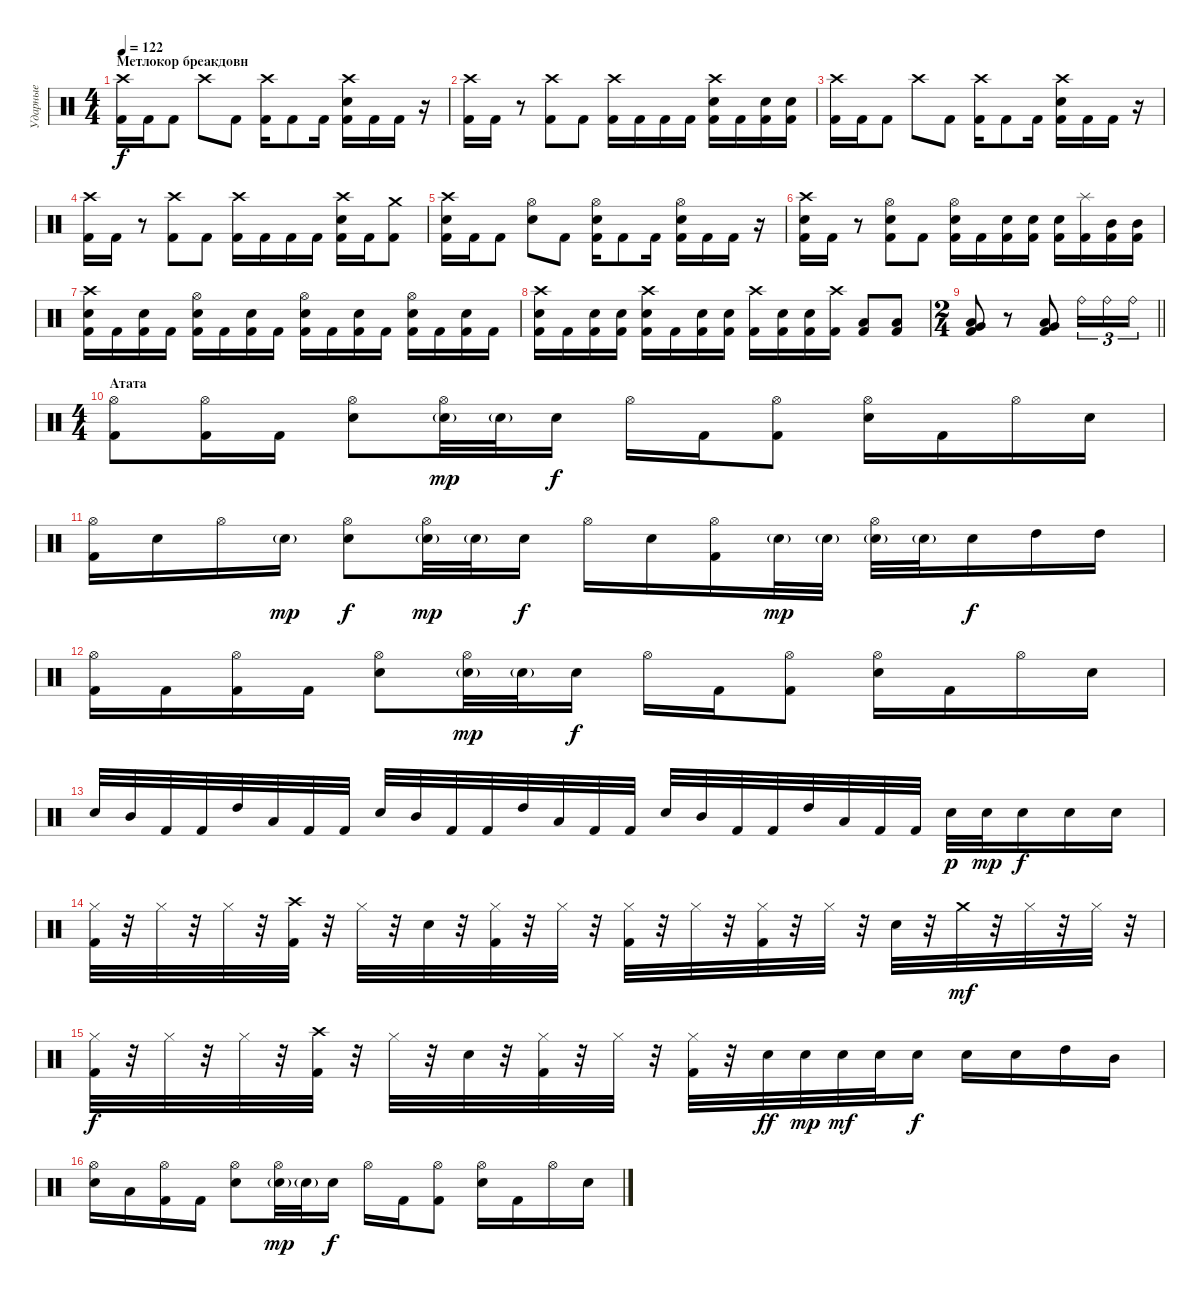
\track ("Ударные" "Ударные") {instrument percussion}
\staff {score}
\articulation defaults
\ts (4 4)
\section ("" "Метлокор бреакдовн")
\tempo 122
\clef neutral
\ks c
("Crash high (hit)" "Kick (hit) 2").16{dy f} "Kick (hit) 2".16 "Kick (hit) 2".8 "Crash high (hit)".8 "Kick (hit) 2".8 ("Crash high (hit)" "Kick (hit) 2").16 "Kick (hit) 2".8 "Kick (hit) 2".16 ("Crash high (hit)" "Electric Snare (hit)" "Kick (hit) 2").16 "Kick (hit) 2".16 "Kick (hit) 2".16 r.16 |
("Crash high (hit)" "Kick (hit) 2").16 "Kick (hit) 2".16 r.8 ("Crash high (hit)" "Kick (hit) 2").8 "Kick (hit) 2".8 ("Crash high (hit)" "Kick (hit) 2").16 "Kick (hit) 2".16 "Kick (hit) 2".16 "Kick (hit) 2".16 ("Crash high (hit)" "Electric Snare (hit)" "Kick (hit) 2").16 "Kick (hit) 2".16 ("Electric Snare (hit)" "Kick (hit) 2").16 ("Electric Snare (hit)" "Kick (hit) 2").16 |
("Crash high (hit)" "Kick (hit) 2").16 "Kick (hit) 2".16 "Kick (hit) 2".8 "Crash high (hit)".8 "Kick (hit) 2".8 ("Crash high (hit)" "Kick (hit) 2").16 "Kick (hit) 2".8 "Kick (hit) 2".16 ("Crash high (hit)" "Electric Snare (hit)" "Kick (hit) 2").16 "Kick (hit) 2".16 "Kick (hit) 2".16 r.16 |
("Crash high (hit)" "Kick (hit) 2").16 "Kick (hit) 2".16 r.8 ("Crash high (hit)" "Kick (hit) 2").8 "Kick (hit) 2".8 ("Crash high (hit)" "Kick (hit) 2").16 "Kick (hit) 2".16 "Kick (hit) 2".16 "Kick (hit) 2".16 ("Crash high (hit)" "Electric Snare (hit)" "Kick (hit) 2").16 "Kick (hit) 2".16 ("Crash medium (hit)" "Kick (hit) 2").8 |
("Crash high (hit)" "Electric Snare (hit)" "Kick (hit) 2").16 "Kick (hit) 2".16 "Kick (hit) 2".8 ("Hi-Hat (open)" "Electric Snare (hit)").8 "Kick (hit) 2".8 ("Hi-Hat (open)" "Electric Snare (hit)" "Kick (hit) 2").16 "Kick (hit) 2".8 "Kick (hit) 2".16 ("Hi-Hat (open)" "Electric Snare (hit)" "Kick (hit) 2").16 "Kick (hit) 2".16 "Kick (hit) 2".16 r.16 |
("Crash high (hit)" "Electric Snare (hit)" "Kick (hit) 2").16 "Kick (hit) 2".16 r.8 ("Hi-Hat (open)" "Electric Snare (hit)" "Kick (hit) 2").8 "Kick (hit) 2".8 ("Hi-Hat (open)" "Electric Snare (hit)" "Kick (hit) 2").16 "Kick (hit) 2".16 ("Electric Snare (hit)" "Kick (hit) 2").16 ("Electric Snare (hit)" "Kick (hit) 2").16 ("Electric Snare (hit)" "Kick (hit) 2").16 ("Splash (hit)" "Kick (hit) 2").16 ("Mid Tom (hit)" "Kick (hit) 2").16 ("Mid Tom (hit)" "Kick (hit) 2").16 |
("Crash high (hit)" "Electric Snare (hit)" "Kick (hit) 2").16 "Kick (hit) 2".16 ("Electric Snare (hit)" "Kick (hit) 2").16 "Kick (hit) 2".16 ("Hi-Hat (open)" "Electric Snare (hit)" "Kick (hit) 2").16 "Kick (hit) 2".16 ("Electric Snare (hit)" "Kick (hit) 2").16 "Kick (hit) 2".16 ("Hi-Hat (open)" "Electric Snare (hit)" "Kick (hit) 2").16 "Kick (hit) 2".16 ("Electric Snare (hit)" "Kick (hit) 2").16 "Kick (hit) 2".16 ("Hi-Hat (open)" "Electric Snare (hit)" "Kick (hit) 2").16 "Kick (hit) 2".16 ("Electric Snare (hit)" "Kick (hit) 2").16 "Kick (hit) 2".16 |
("Crash high (hit)" "Electric Snare (hit)" "Kick (hit) 2").16 "Kick (hit) 2".16 ("Electric Snare (hit)" "Kick (hit) 2").16 ("Electric Snare (hit)" "Kick (hit) 2").16 ("Crash high (hit)" "Electric Snare (hit)" "Kick (hit) 2").16 "Kick (hit) 2".16 ("Electric Snare (hit)" "Kick (hit) 2").16 ("Electric Snare (hit)" "Kick (hit) 2").16 ("Crash high (hit)" "Kick (hit) 2").16 ("Electric Snare (hit)" "Kick (hit) 2").16 ("Electric Snare (hit)" "Kick (hit) 2").16 ("Crash high (hit)" "Kick (hit) 2").16 ("Low Tom (hit)" "Kick (hit) 2").8 ("Low Tom (hit)" "Kick (hit) 2").8 |
\ts (2 4)
\barLineRight lightlight
("Low Tom (hit)" "Very Low Tom (hit)" "Kick (hit) 2").8 r.8 ("Low Tom (hit)" "Very Low Tom (hit)" "Kick (hit) 2").8 "Ride (bell)".16{tu (3 2)} "Ride (bell)".16{tu (3 2)} "Ride (bell)".16{tu (3 2)} |
\ts (4 4)
\section ("" "Атата")
("Hi-Hat (open)" "Kick (hit) 2").8 ("Hi-Hat (open)" "Kick (hit) 2").16 "Kick (hit) 2".16 ("Hi-Hat (open)" "Electric Snare (hit)").8 ("Hi-Hat (open)" "Electric Snare (hit)"{g}).32{dy mp} "Electric Snare (hit)"{g}.32 "Electric Snare (hit)".16{dy f} "Hi-Hat (open)".16 "Kick (hit) 2".16 ("Hi-Hat (open)" "Kick (hit) 2").8 ("Hi-Hat (open)" "Electric Snare (hit)").16 "Kick (hit) 2".16 "Hi-Hat (open)".16 "Electric Snare (hit)".16 |
("Hi-Hat (open)" "Kick (hit) 2").16 "Electric Snare (hit)".16 "Hi-Hat (open)".16 "Electric Snare (hit)"{g}.16{dy mp} ("Hi-Hat (open)" "Electric Snare (hit)").8{dy f} ("Hi-Hat (open)" "Electric Snare (hit)"{g}).32{dy mp} "Electric Snare (hit)"{g}.32 "Electric Snare (hit)".16{dy f} "Hi-Hat (open)".16 "Electric Snare (hit)".16 ("Hi-Hat (open)" "Kick (hit) 2").16 "Electric Snare (hit)"{g}.32{dy mp} "Electric Snare (hit)"{g}.32 ("Hi-Hat (open)" "Electric Snare (hit)"{g}).32 "Electric Snare (hit)"{g}.32 "Electric Snare (hit)".16{dy f} "High Tom (hit)".16 "High Tom (hit)".16 |
("Hi-Hat (open)" "Kick (hit) 2").16 "Kick (hit) 2".16 ("Hi-Hat (open)" "Kick (hit) 2").16 "Kick (hit) 2".16 ("Hi-Hat (open)" "Electric Snare (hit)").8 ("Hi-Hat (open)" "Electric Snare (hit)"{g}).32{dy mp} "Electric Snare (hit)"{g}.32 "Electric Snare (hit)".16{dy f} "Hi-Hat (open)".16 "Kick (hit) 2".16 ("Hi-Hat (open)" "Kick (hit) 2").8 ("Hi-Hat (open)" "Electric Snare (hit)").16 "Kick (hit) 2".16 "Hi-Hat (open)".16 "Electric Snare (hit)".16 |
"Electric Snare (hit)".32 "Mid Tom (hit)".32 "Kick (hit) 2".32 "Kick (hit) 2".32 "High Tom (hit)".32 "Low Tom (hit)".32 "Kick (hit) 2".32 "Kick (hit) 2".32 "Electric Snare (hit)".32 "Mid Tom (hit)".32 "Kick (hit) 2".32 "Kick (hit) 2".32 "High Tom (hit)".32 "Low Tom (hit)".32 "Kick (hit) 2".32 "Kick (hit) 2".32 "Electric Snare (hit)".32 "Mid Tom (hit)".32 "Kick (hit) 2".32 "Kick (hit) 2".32 "High Tom (hit)".32 "Low Tom (hit)".32 "Kick (hit) 2".32 "Kick (hit) 2".32 "Electric Snare (hit)".32{dy p} "Electric Snare (hit)".32{dy mp} "Electric Snare (hit)".16{dy f} "Electric Snare (hit)".16 "Electric Snare (hit)".16 |
("Hi-Hat (closed)" "Kick (hit) 2").32 r.32 "Hi-Hat (closed)".32 r.32 "Hi-Hat (closed)".32 r.32 ("Crash high (hit)" "Kick (hit) 2").32 r.32 "Hi-Hat (closed)".32 r.32 "Electric Snare (hit)".32 r.32 ("Hi-Hat (closed)" "Kick (hit) 2").32 r.32 "Hi-Hat (closed)".32 r.32 ("Hi-Hat (closed)" "Kick (hit) 2").32 r.32 "Hi-Hat (closed)".32 r.32 ("Hi-Hat (closed)" "Kick (hit) 2").32 r.32 "Hi-Hat (closed)".32 r.32 "Electric Snare (hit)".32 r.32 "Crash medium (hit)".32{dy mf} r.32 "Hi-Hat (closed)".32 r.32 "Hi-Hat (closed)".32 r.32 |
("Hi-Hat (closed)" "Kick (hit) 2").32{dy f} r.32 "Hi-Hat (closed)".32 r.32 "Hi-Hat (closed)".32 r.32 ("Crash high (hit)" "Kick (hit) 2").32 r.32 "Hi-Hat (closed)".32 r.32 "Electric Snare (hit)".32 r.32 ("Hi-Hat (closed)" "Kick (hit) 2").32 r.32 "Hi-Hat (closed)".32 r.32 ("Hi-Hat (closed)" "Kick (hit) 2").32 r.32 "Electric Snare (hit)".32{dy ff} "Electric Snare (hit)".32{dy mp} "Electric Snare (hit)".32{dy mf} "Electric Snare (hit)".32 "Electric Snare (hit)".16{dy f} "Electric Snare (hit)".16 "Electric Snare (hit)".16 "High Tom (hit)".16 "Mid Tom (hit)".16 |
("Hi-Hat (open)" "Electric Snare (hit)").16 "Low Tom (hit)".16 ("Hi-Hat (open)" "Kick (hit) 2").16 "Kick (hit) 2".16 ("Hi-Hat (open)" "Electric Snare (hit)").8 ("Hi-Hat (open)" "Electric Snare (hit)"{g}).32{dy mp} "Electric Snare (hit)"{g}.32 "Electric Snare (hit)".16{dy f} "Hi-Hat (open)".16 "Kick (hit) 2".16 ("Hi-Hat (open)" "Kick (hit) 2").8 ("Hi-Hat (open)" "Electric Snare (hit)").16 "Kick (hit) 2".16 "Hi-Hat (open)".16 "Electric Snare (hit)".16
